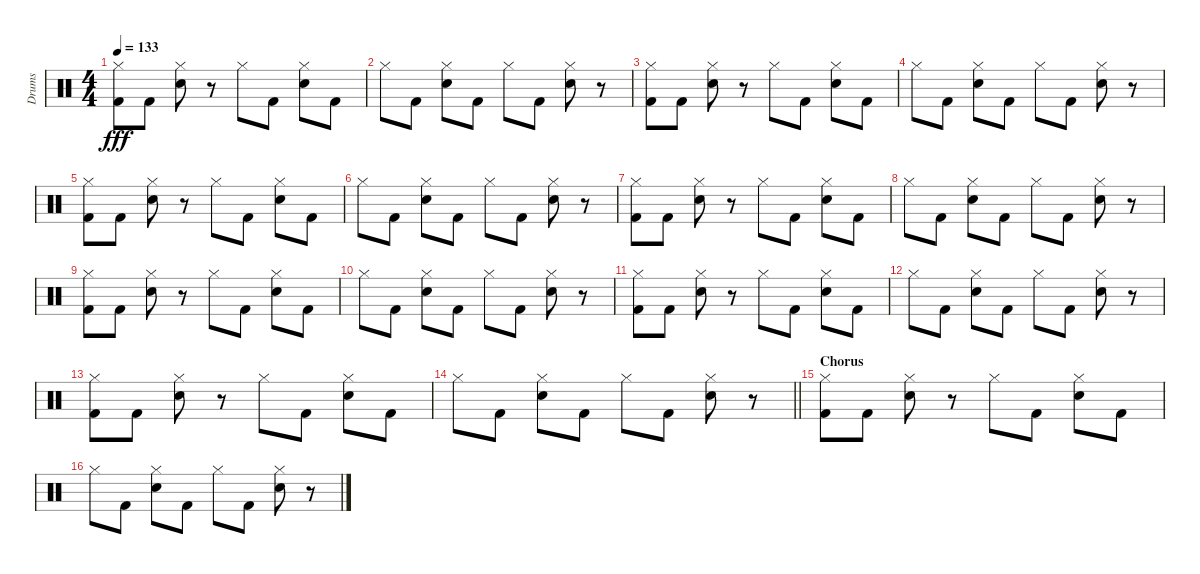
\track ("Drums" "Drums") {instrument percussion}
\staff {score}
\articulation defaults
\ts (4 4)
\tempo 133
\clef neutral
\ks c
("Hi-Hat (closed)" "Kick (hit) 2").8{dy fff} "Kick (hit) 2".8 ("Hi-Hat (closed)" "Snare (hit) 2").8 r.8 "Hi-Hat (closed)".8 "Kick (hit) 2".8 ("Hi-Hat (closed)" "Snare (hit) 2").8 "Kick (hit) 2".8 |
"Hi-Hat (closed)".8 "Kick (hit) 2".8 ("Hi-Hat (closed)" "Snare (hit) 2").8 "Kick (hit) 2".8 "Hi-Hat (closed)".8 "Kick (hit) 2".8 ("Hi-Hat (closed)" "Snare (hit) 2").8 r.8 |
("Hi-Hat (closed)" "Kick (hit) 2").8 "Kick (hit) 2".8 ("Hi-Hat (closed)" "Snare (hit) 2").8 r.8 "Hi-Hat (closed)".8 "Kick (hit) 2".8 ("Hi-Hat (closed)" "Snare (hit) 2").8 "Kick (hit) 2".8 |
"Hi-Hat (closed)".8 "Kick (hit) 2".8 ("Hi-Hat (closed)" "Snare (hit) 2").8 "Kick (hit) 2".8 "Hi-Hat (closed)".8 "Kick (hit) 2".8 ("Hi-Hat (closed)" "Snare (hit) 2").8 r.8 |
("Hi-Hat (closed)" "Kick (hit) 2").8 "Kick (hit) 2".8 ("Hi-Hat (closed)" "Snare (hit) 2").8 r.8 "Hi-Hat (closed)".8 "Kick (hit) 2".8 ("Hi-Hat (closed)" "Snare (hit) 2").8 "Kick (hit) 2".8 |
"Hi-Hat (closed)".8 "Kick (hit) 2".8 ("Hi-Hat (closed)" "Snare (hit) 2").8 "Kick (hit) 2".8 "Hi-Hat (closed)".8 "Kick (hit) 2".8 ("Hi-Hat (closed)" "Snare (hit) 2").8 r.8 |
("Hi-Hat (closed)" "Kick (hit) 2").8 "Kick (hit) 2".8 ("Hi-Hat (closed)" "Snare (hit) 2").8 r.8 "Hi-Hat (closed)".8 "Kick (hit) 2".8 ("Hi-Hat (closed)" "Snare (hit) 2").8 "Kick (hit) 2".8 |
"Hi-Hat (closed)".8 "Kick (hit) 2".8 ("Hi-Hat (closed)" "Snare (hit) 2").8 "Kick (hit) 2".8 "Hi-Hat (closed)".8 "Kick (hit) 2".8 ("Hi-Hat (closed)" "Snare (hit) 2").8 r.8 |
("Hi-Hat (closed)" "Kick (hit) 2").8 "Kick (hit) 2".8 ("Hi-Hat (closed)" "Snare (hit) 2").8 r.8 "Hi-Hat (closed)".8 "Kick (hit) 2".8 ("Hi-Hat (closed)" "Snare (hit) 2").8 "Kick (hit) 2".8 |
"Hi-Hat (closed)".8 "Kick (hit) 2".8 ("Hi-Hat (closed)" "Snare (hit) 2").8 "Kick (hit) 2".8 "Hi-Hat (closed)".8 "Kick (hit) 2".8 ("Hi-Hat (closed)" "Snare (hit) 2").8 r.8 |
("Hi-Hat (closed)" "Kick (hit) 2").8 "Kick (hit) 2".8 ("Hi-Hat (closed)" "Snare (hit) 2").8 r.8 "Hi-Hat (closed)".8 "Kick (hit) 2".8 ("Hi-Hat (closed)" "Snare (hit) 2").8 "Kick (hit) 2".8 |
"Hi-Hat (closed)".8 "Kick (hit) 2".8 ("Hi-Hat (closed)" "Snare (hit) 2").8 "Kick (hit) 2".8 "Hi-Hat (closed)".8 "Kick (hit) 2".8 ("Hi-Hat (closed)" "Snare (hit) 2").8 r.8 |
("Hi-Hat (closed)" "Kick (hit) 2").8 "Kick (hit) 2".8 ("Hi-Hat (closed)" "Snare (hit) 2").8 r.8 "Hi-Hat (closed)".8 "Kick (hit) 2".8 ("Hi-Hat (closed)" "Snare (hit) 2").8 "Kick (hit) 2".8 |
\barLineRight lightlight "Hi-Hat (closed)".8 "Kick (hit) 2".8
("Hi-Hat (closed)" "Snare (hit) 2").8 "Kick (hit) 2".8 "Hi-Hat (closed)".8 "Kick (hit) 2".8 ("Hi-Hat (closed)" "Snare (hit) 2").8 r.8 |
\section ("" "Chorus")
("Hi-Hat (closed)" "Kick (hit) 2").8 "Kick (hit) 2".8 ("Hi-Hat (closed)" "Snare (hit) 2").8 r.8 "Hi-Hat (closed)".8 "Kick (hit) 2".8 ("Hi-Hat (closed)" "Snare (hit) 2").8 "Kick (hit) 2".8 |
"Hi-Hat (closed)".8 "Kick (hit) 2".8 ("Hi-Hat (closed)" "Snare (hit) 2").8 "Kick (hit) 2".8 "Hi-Hat (closed)".8 "Kick (hit) 2".8 ("Hi-Hat (closed)" "Snare (hit) 2").8 r.8
